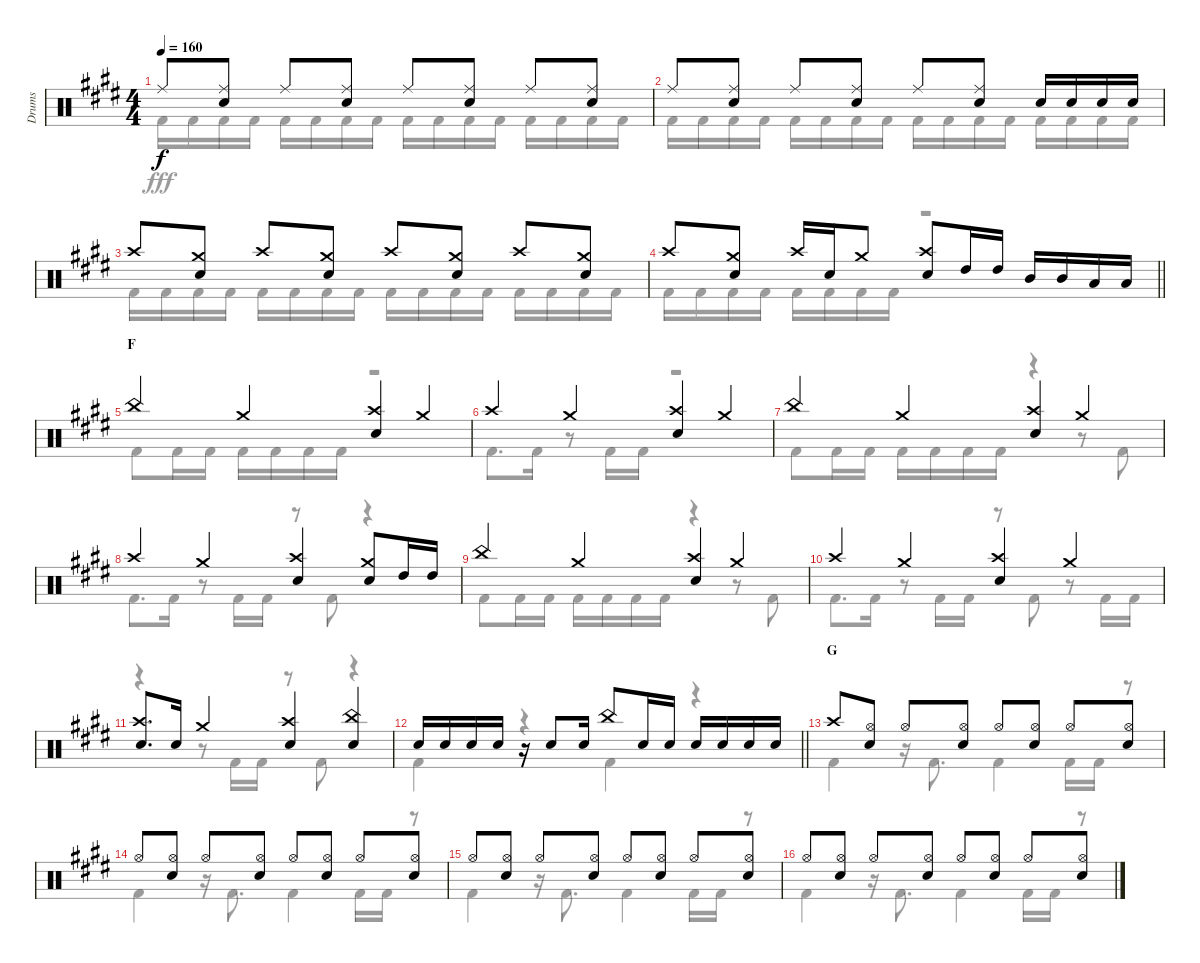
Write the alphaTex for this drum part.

\track ("Drums" "Drums") {instrument percussion}
\staff {score}
\articulation defaults
\voice
\ts (4 4)
\tempo 160
\clef neutral
\ks e "Ride (middle)".8{dy f}
("Ride (middle)" "Snare (hit) 2").8 "Ride (middle)".8 ("Ride (middle)" "Snare (hit) 2").8 "Ride (middle)".8 ("Ride (middle)" "Snare (hit) 2").8 "Ride (middle)".8 ("Ride (middle)" "Snare (hit) 2").8 |
"Ride (middle)".8 ("Ride (middle)" "Snare (hit) 2").8 "Ride (middle)".8 ("Ride (middle)" "Snare (hit) 2").8 "Ride (middle)".8 ("Ride (middle)" "Snare (hit) 2").8 "Snare (hit) 2".16 "Snare (hit) 2".16 "Snare (hit) 2".16 "Snare (hit) 2".16 |
"Crash high (hit)".8 ("Crash medium (hit)" "Snare (hit) 2").8 "Crash high (hit)".8 ("Crash medium (hit)" "Snare (hit) 2").8 "Crash high (hit)".8 ("Crash medium (hit)" "Snare (hit) 2").8 "Crash high (hit)".8 ("Crash medium (hit)" "Snare (hit) 2").8 |
\barLineRight lightlight "Crash high (hit)".8
("Crash medium (hit)" "Snare (hit) 2").8 "Crash high (hit)".16 "Snare (hit) 2".16 "Crash medium (hit)".8 ("Crash high (hit)" "Snare (hit) 2").8 "High Tom (hit)".16 "High Tom (hit)".16 "Mid Tom (hit)".16 "Mid Tom (hit)".16 "Low Tom (hit)".16 "Low Tom (hit)".16 |
\section ("" "F")
"China (hit)".4 "Crash medium (hit)".4 ("Crash high (hit)" "Snare (hit) 2").4 "Crash medium (hit)".4 |
"Crash high (hit)".4 "Crash medium (hit)".4 ("Crash high (hit)" "Snare (hit) 2").4 "Crash medium (hit)".4 |
"China (hit)".4 "Crash medium (hit)".4 ("Crash high (hit)" "Snare (hit) 2").4 "Crash medium (hit)".4 |
"Crash high (hit)".4 "Crash medium (hit)".4 ("Crash high (hit)" "Snare (hit) 2").4 ("Crash medium (hit)" "Snare (hit) 2").8 "High Tom (hit)".16 "High Tom (hit)".16 |
"China (hit)".4 "Crash medium (hit)".4 ("Crash high (hit)" "Snare (hit) 2").4 "Crash medium (hit)".4 |
"Crash high (hit)".4 "Crash medium (hit)".4 ("Crash high (hit)" "Snare (hit) 2").4 "Crash medium (hit)".4 |
("Crash high (hit)" "Snare (hit) 2").8{d} "Snare (hit) 2".16 "Crash medium (hit)".4 ("Crash high (hit)" "Snare (hit) 2").4 ("China (hit)" "Snare (hit) 2").4 |
\barLineRight lightlight "Snare (hit) 2".16 "Snare (hit) 2".16 "Snare (hit) 2".16 "Snare (hit) 2".16
r.16 "Snare (hit) 2".8 "Snare (hit) 2".16 "China (hit)".8 "Snare (hit) 2".16 "Snare (hit) 2".16 "Snare (hit) 2".16 "Snare (hit) 2".16 "Snare (hit) 2".16 "Snare (hit) 2".16 |
\section ("" "G")
"Crash high (hit)".8 ("Hi-Hat (open)" "Snare (hit) 2").8 "Hi-Hat (open)".8 ("Hi-Hat (open)" "Snare (hit) 2").8 "Hi-Hat (open)".8 ("Hi-Hat (open)" "Snare (hit) 2").8 "Hi-Hat (open)".8 ("Hi-Hat (open)" "Snare (hit) 2").8 |
"Hi-Hat (open)".8 ("Hi-Hat (open)" "Snare (hit) 2").8 "Hi-Hat (open)".8 ("Hi-Hat (open)" "Snare (hit) 2").8 "Hi-Hat (open)".8 ("Hi-Hat (open)" "Snare (hit) 2").8 "Hi-Hat (open)".8 ("Hi-Hat (open)" "Snare (hit) 2").8 |
"Hi-Hat (open)".8 ("Hi-Hat (open)" "Snare (hit) 2").8 "Hi-Hat (open)".8 ("Hi-Hat (open)" "Snare (hit) 2").8 "Hi-Hat (open)".8 ("Hi-Hat (open)" "Snare (hit) 2").8 "Hi-Hat (open)".8 ("Hi-Hat (open)" "Snare (hit) 2").8 |
"Hi-Hat (open)".8 ("Hi-Hat (open)" "Snare (hit) 2").8 "Hi-Hat (open)".8 ("Hi-Hat (open)" "Snare (hit) 2").8 "Hi-Hat (open)".8 ("Hi-Hat (open)" "Snare (hit) 2").8 "Hi-Hat (open)".8 ("Hi-Hat (open)" "Snare (hit) 2").8
\voice
\clef neutral
\ottava regular
\simile none
\ks e "Kick (hit) 2".16{dy fff} "Kick (hit) 2".16 "Kick (hit) 2".16 "Kick (hit) 2".16 "Kick (hit) 2".16 "Kick (hit) 2".16 "Kick (hit) 2".16 "Kick (hit) 2".16 "Kick (hit) 2".16 "Kick (hit) 2".16 "Kick (hit) 2".16 "Kick (hit) 2".16 "Kick (hit) 2".16 "Kick (hit) 2".16 "Kick (hit) 2".16 "Kick (hit) 2".16
|
"Kick (hit) 2".16 "Kick (hit) 2".16 "Kick (hit) 2".16 "Kick (hit) 2".16 "Kick (hit) 2".16 "Kick (hit) 2".16 "Kick (hit) 2".16 "Kick (hit) 2".16 "Kick (hit) 2".16 "Kick (hit) 2".16 "Kick (hit) 2".16 "Kick (hit) 2".16 "Kick (hit) 2".16 "Kick (hit) 2".16 "Kick (hit) 2".16 "Kick (hit) 2".16 |
"Kick (hit) 2".16 "Kick (hit) 2".16 "Kick (hit) 2".16 "Kick (hit) 2".16 "Kick (hit) 2".16 "Kick (hit) 2".16 "Kick (hit) 2".16 "Kick (hit) 2".16 "Kick (hit) 2".16 "Kick (hit) 2".16 "Kick (hit) 2".16 "Kick (hit) 2".16 "Kick (hit) 2".16 "Kick (hit) 2".16 "Kick (hit) 2".16 "Kick (hit) 2".16 |
\barLineRight lightlight "Kick (hit) 2".16 "Kick (hit) 2".16 "Kick (hit) 2".16 "Kick (hit) 2".16 "Kick (hit) 2".16 "Kick (hit) 2".16 "Kick (hit) 2".16 "Kick (hit) 2".16
r.2 |
"Kick (hit) 2".8 "Kick (hit) 2".16 "Kick (hit) 2".16 "Kick (hit) 2".16 "Kick (hit) 2".16 "Kick (hit) 2".16 "Kick (hit) 2".16 r.2 |
"Kick (hit) 2".8{d} "Kick (hit) 2".16 r.8 "Kick (hit) 2".16 "Kick (hit) 2".16 r.2 |
"Kick (hit) 2".8 "Kick (hit) 2".16 "Kick (hit) 2".16 "Kick (hit) 2".16 "Kick (hit) 2".16 "Kick (hit) 2".16 "Kick (hit) 2".16 r.4 r.8 "Kick (hit) 2".8 |
"Kick (hit) 2".8{d} "Kick (hit) 2".16 r.8 "Kick (hit) 2".16 "Kick (hit) 2".16 r.8 "Kick (hit) 2".8 r.4 |
"Kick (hit) 2".8 "Kick (hit) 2".16 "Kick (hit) 2".16 "Kick (hit) 2".16 "Kick (hit) 2".16 "Kick (hit) 2".16 "Kick (hit) 2".16 r.4 r.8 "Kick (hit) 2".8 |
"Kick (hit) 2".8{d} "Kick (hit) 2".16 r.8 "Kick (hit) 2".16 "Kick (hit) 2".16 r.8 "Kick (hit) 2".8 r.8 "Kick (hit) 2".16 "Kick (hit) 2".16 |
r.4 r.8 "Kick (hit) 2".16 "Kick (hit) 2".16 r.8 "Kick (hit) 2".8 r.4 |
\barLineRight lightlight "Kick (hit) 2".4
r.4 "Kick (hit) 2".4 r.4 |
"Kick (hit) 2".4 r.16 "Kick (hit) 2".8{d} "Kick (hit) 2".4 "Kick (hit) 2".16 "Kick (hit) 2".16 r.8 |
"Kick (hit) 2".4 r.16 "Kick (hit) 2".8{d} "Kick (hit) 2".4 "Kick (hit) 2".16 "Kick (hit) 2".16 r.8 |
"Kick (hit) 2".4 r.16 "Kick (hit) 2".8{d} "Kick (hit) 2".4 "Kick (hit) 2".16 "Kick (hit) 2".16 r.8 |
"Kick (hit) 2".4 r.16 "Kick (hit) 2".8{d} "Kick (hit) 2".4 "Kick (hit) 2".16 "Kick (hit) 2".16 r.8
